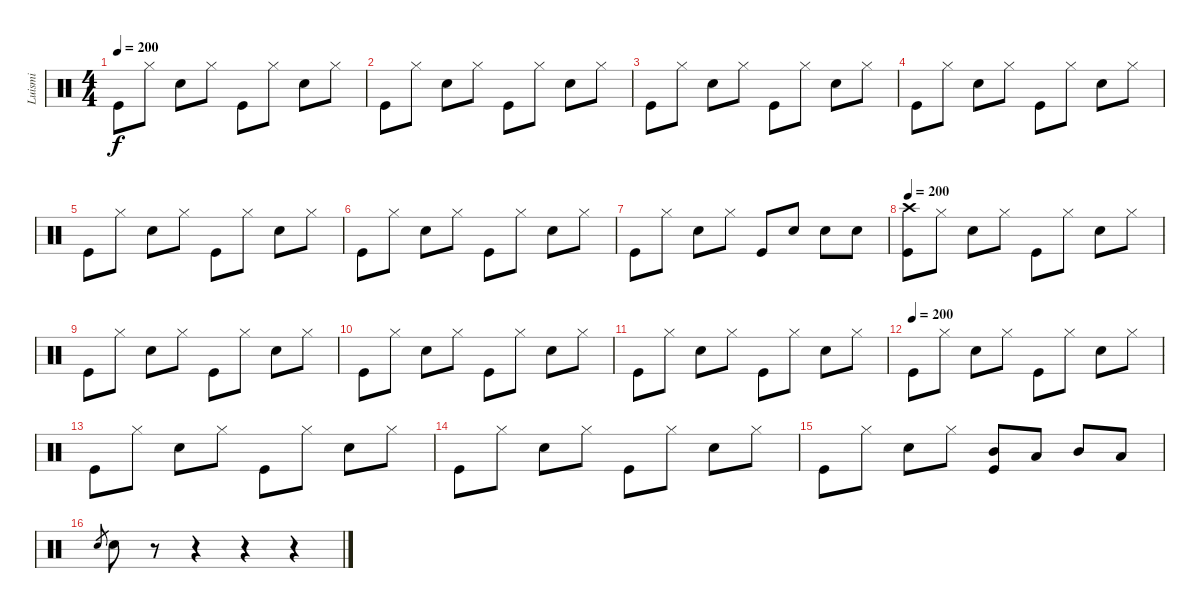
\track ("Luismi" "Luismi") {instrument percussion}
\staff {score}
\articulation defaults
\ts (4 4)
\tempo 200
\clef neutral
\ks c "Kick (hit)".8{dy f} "Hi-Hat (closed)".8 "Snare (hit) 2".8 "Hi-Hat (closed)".8 "Kick (hit)".8 "Hi-Hat (closed)".8 "Snare (hit) 2".8 "Hi-Hat (closed)".8
|
"Kick (hit)".8 "Hi-Hat (closed)".8 "Snare (hit) 2".8 "Hi-Hat (closed)".8 "Kick (hit)".8 "Hi-Hat (closed)".8 "Snare (hit) 2".8 "Hi-Hat (closed)".8 |
"Kick (hit)".8 "Hi-Hat (closed)".8 "Snare (hit) 2".8 "Hi-Hat (closed)".8 "Kick (hit)".8 "Hi-Hat (closed)".8 "Snare (hit) 2".8 "Hi-Hat (closed)".8 |
"Kick (hit)".8 "Hi-Hat (closed)".8 "Snare (hit) 2".8 "Hi-Hat (closed)".8 "Kick (hit)".8 "Hi-Hat (closed)".8 "Snare (hit) 2".8 "Hi-Hat (closed)".8 |
"Kick (hit)".8 "Hi-Hat (closed)".8 "Snare (hit) 2".8 "Hi-Hat (closed)".8 "Kick (hit)".8 "Hi-Hat (closed)".8 "Snare (hit) 2".8 "Hi-Hat (closed)".8 |
"Kick (hit)".8 "Hi-Hat (closed)".8 "Snare (hit) 2".8 "Hi-Hat (closed)".8 "Kick (hit)".8 "Hi-Hat (closed)".8 "Snare (hit) 2".8 "Hi-Hat (closed)".8 |
"Kick (hit)".8 "Hi-Hat (closed)".8 "Snare (hit) 2".8 "Hi-Hat (closed)".8 "Kick (hit)".8 "Snare (hit) 2".8 "Snare (hit) 2".8 "Snare (hit) 2".8 |
\tempo 200
("Crash high (hit)" "Kick (hit)").8 "Hi-Hat (closed)".8 "Snare (hit) 2".8 "Hi-Hat (closed)".8 "Kick (hit)".8 "Hi-Hat (closed)".8 "Snare (hit) 2".8 "Hi-Hat (closed)".8 |
"Kick (hit)".8 "Hi-Hat (closed)".8 "Snare (hit) 2".8 "Hi-Hat (closed)".8 "Kick (hit)".8 "Hi-Hat (closed)".8 "Snare (hit) 2".8 "Hi-Hat (closed)".8 |
"Kick (hit)".8 "Hi-Hat (closed)".8 "Snare (hit) 2".8 "Hi-Hat (closed)".8 "Kick (hit)".8 "Hi-Hat (closed)".8 "Snare (hit) 2".8 "Hi-Hat (closed)".8 |
"Kick (hit)".8 "Hi-Hat (closed)".8 "Snare (hit) 2".8 "Hi-Hat (closed)".8 "Kick (hit)".8 "Hi-Hat (closed)".8 "Snare (hit) 2".8 "Hi-Hat (closed)".8 |
\tempo (200)
"Kick (hit)".8 "Hi-Hat (closed)".8 "Snare (hit) 2".8 "Hi-Hat (closed)".8 "Kick (hit)".8 "Hi-Hat (closed)".8 "Snare (hit) 2".8 "Hi-Hat (closed)".8 |
"Kick (hit)".8 "Hi-Hat (closed)".8 "Snare (hit) 2".8 "Hi-Hat (closed)".8 "Kick (hit)".8 "Hi-Hat (closed)".8 "Snare (hit) 2".8 "Hi-Hat (closed)".8 |
"Kick (hit)".8 "Hi-Hat (closed)".8 "Snare (hit) 2".8 "Hi-Hat (closed)".8 "Kick (hit)".8 "Hi-Hat (closed)".8 "Snare (hit) 2".8 "Hi-Hat (closed)".8 |
"Kick (hit)".8 "Hi-Hat (closed)".8 "Snare (hit) 2".8 "Hi-Hat (closed)".8 ("Kick (hit)" "Mid Tom (hit)").8 "Low Tom (hit)".8 "Mid Tom (hit)".8 "Low Tom (hit)".8 |
"Snare (hit) 2".8{gr} "Snare (hit) 2".8 r.8 r.4 r.4 r.4
